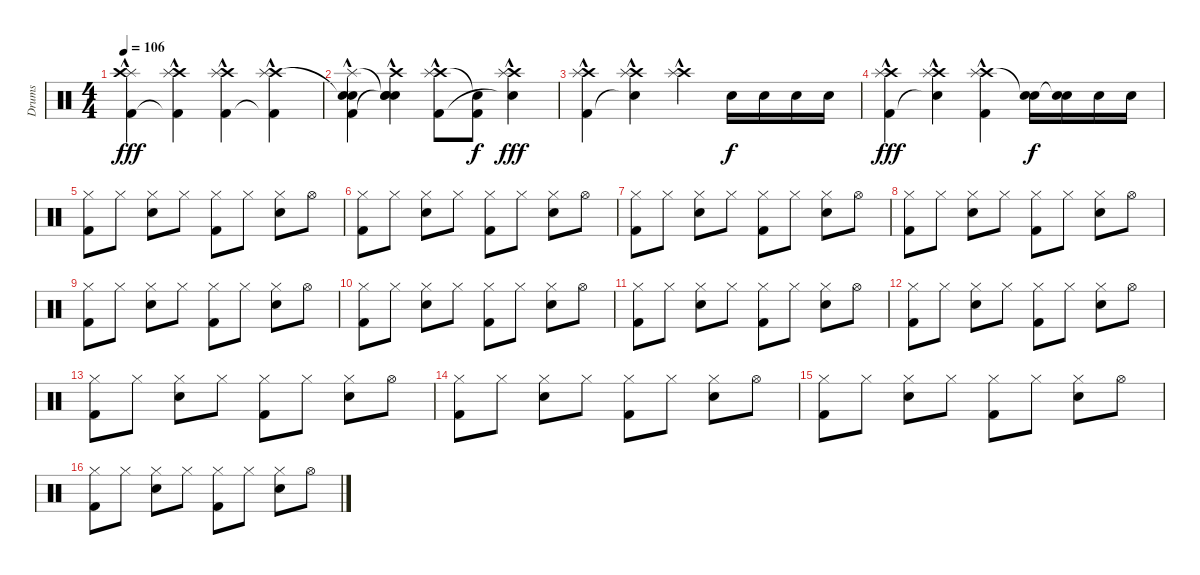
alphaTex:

\track ("Drums" "Drums") {instrument percussion}
\staff {score}
\articulation defaults
\ts (4 4)
\tempo 106
\clef neutral
\ks c
("Splash (hit)" "Crash high (hit)"{hac} "Kick (hit) 2").4{dy fff volume 16} ("Crash high (hit)"{hac} "Splash (hit)" "Kick (hit) 2"{t}).4 ("Crash high (hit)" "Splash (hit)"{hac} "Kick (hit) 2").4 ("Crash high (hit)"{hac} "Splash (hit)" "Kick (hit) 2"{t}).4 |
("Snare (hit)"{t} "Splash (hit)"{hac} "Snare (hit) 2" "Kick (hit) 2").4 ("Crash high (hit)"{hac} "Snare (hit)"{t} "Snare (hit) 2" "Snare (hit)"{t}).4 ("Crash high (hit)" "Splash (hit)"{hac} "Kick (hit) 2").8 ("Snare (hit)"{t} "Kick (hit) 2").8{dy f} ("Crash high (hit)"{hac} "Splash (hit)" "Snare (hit)"{t}).4{dy fff} |
("Crash high (hit)" "Splash (hit)"{hac} "Kick (hit) 2").4 ("Crash high (hit)"{hac} "Splash (hit)" "Snare (hit)"{t}).4 ("Crash high (hit)" "Splash (hit)"{hac}).4 "Snare (hit) 2".16{dy f} "Snare (hit) 2".16 "Snare (hit) 2".16 "Snare (hit) 2".16 |
("Crash high (hit)" "Splash (hit)"{hac} "Kick (hit) 2").4{dy fff} ("Crash high (hit)"{hac} "Splash (hit)" "Snare (hit)"{t}).4 ("Crash high (hit)" "Splash (hit)"{hac} "Kick (hit) 2").4 ("Snare (hit) 2" "Snare (hit)"{t}).16{dy f} ("Snare (hit) 2" "Snare (hit)"{t}).16 "Snare (hit) 2".16 "Snare (hit) 2".16 |
("Hi-Hat (closed)" "Kick (hit) 2").8{volume 11} "Hi-Hat (closed)".8 ("Hi-Hat (closed)" "Snare (hit) 2").8 "Hi-Hat (closed)".8 ("Hi-Hat (closed)" "Kick (hit) 2").8 "Hi-Hat (closed)".8 ("Hi-Hat (closed)" "Snare (hit) 2").8 "Hi-Hat (open)".8 |
("Hi-Hat (closed)" "Kick (hit) 2").8 "Hi-Hat (closed)".8 ("Hi-Hat (closed)" "Snare (hit) 2").8 "Hi-Hat (closed)".8 ("Hi-Hat (closed)" "Kick (hit) 2").8 "Hi-Hat (closed)".8 ("Hi-Hat (closed)" "Snare (hit) 2").8 "Hi-Hat (open)".8 |
("Hi-Hat (closed)" "Kick (hit) 2").8 "Hi-Hat (closed)".8 ("Hi-Hat (closed)" "Snare (hit) 2").8 "Hi-Hat (closed)".8 ("Hi-Hat (closed)" "Kick (hit) 2").8 "Hi-Hat (closed)".8 ("Hi-Hat (closed)" "Snare (hit) 2").8 "Hi-Hat (open)".8 |
("Hi-Hat (closed)" "Kick (hit) 2").8 "Hi-Hat (closed)".8 ("Hi-Hat (closed)" "Snare (hit) 2").8 "Hi-Hat (closed)".8 ("Hi-Hat (closed)" "Kick (hit) 2").8 "Hi-Hat (closed)".8 ("Hi-Hat (closed)" "Snare (hit) 2").8 "Hi-Hat (open)".8 |
("Hi-Hat (closed)" "Kick (hit) 2").8 "Hi-Hat (closed)".8 ("Hi-Hat (closed)" "Snare (hit) 2").8 "Hi-Hat (closed)".8 ("Hi-Hat (closed)" "Kick (hit) 2").8 "Hi-Hat (closed)".8 ("Hi-Hat (closed)" "Snare (hit) 2").8 "Hi-Hat (open)".8 |
("Hi-Hat (closed)" "Kick (hit) 2").8 "Hi-Hat (closed)".8 ("Hi-Hat (closed)" "Snare (hit) 2").8 "Hi-Hat (closed)".8 ("Hi-Hat (closed)" "Kick (hit) 2").8 "Hi-Hat (closed)".8 ("Hi-Hat (closed)" "Snare (hit) 2").8 "Hi-Hat (open)".8 |
("Hi-Hat (closed)" "Kick (hit) 2").8 "Hi-Hat (closed)".8 ("Hi-Hat (closed)" "Snare (hit) 2").8 "Hi-Hat (closed)".8 ("Hi-Hat (closed)" "Kick (hit) 2").8 "Hi-Hat (closed)".8 ("Hi-Hat (closed)" "Snare (hit) 2").8 "Hi-Hat (open)".8 |
("Hi-Hat (closed)" "Kick (hit) 2").8 "Hi-Hat (closed)".8 ("Hi-Hat (closed)" "Snare (hit) 2").8 "Hi-Hat (closed)".8 ("Hi-Hat (closed)" "Kick (hit) 2").8 "Hi-Hat (closed)".8 ("Hi-Hat (closed)" "Snare (hit) 2").8 "Hi-Hat (open)".8 |
("Hi-Hat (closed)" "Kick (hit) 2").8 "Hi-Hat (closed)".8 ("Hi-Hat (closed)" "Snare (hit) 2").8 "Hi-Hat (closed)".8 ("Hi-Hat (closed)" "Kick (hit) 2").8 "Hi-Hat (closed)".8 ("Hi-Hat (closed)" "Snare (hit) 2").8 "Hi-Hat (open)".8 |
("Hi-Hat (closed)" "Kick (hit) 2").8 "Hi-Hat (closed)".8 ("Hi-Hat (closed)" "Snare (hit) 2").8 "Hi-Hat (closed)".8 ("Hi-Hat (closed)" "Kick (hit) 2").8 "Hi-Hat (closed)".8 ("Hi-Hat (closed)" "Snare (hit) 2").8 "Hi-Hat (open)".8 |
("Hi-Hat (closed)" "Kick (hit) 2").8 "Hi-Hat (closed)".8 ("Hi-Hat (closed)" "Snare (hit) 2").8 "Hi-Hat (closed)".8 ("Hi-Hat (closed)" "Kick (hit) 2").8 "Hi-Hat (closed)".8 ("Hi-Hat (closed)" "Snare (hit) 2").8 "Hi-Hat (open)".8 |
("Hi-Hat (closed)" "Kick (hit) 2").8 "Hi-Hat (closed)".8 ("Hi-Hat (closed)" "Snare (hit) 2").8 "Hi-Hat (closed)".8 ("Hi-Hat (closed)" "Kick (hit) 2").8 "Hi-Hat (closed)".8 ("Hi-Hat (closed)" "Snare (hit) 2").8 "Hi-Hat (open)".8
